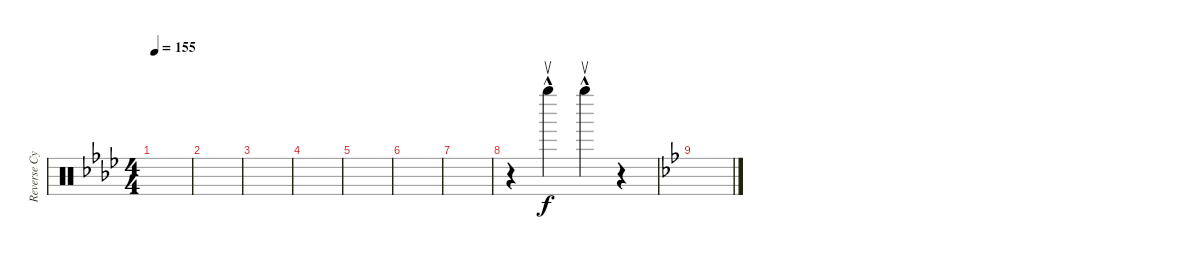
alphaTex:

\track ("Reverse Cymbal" "Reverse Cy") {instrument percussion}
\staff {score}
\articulation defaults
\ts (4 4)
\section ("" "")
\tempo 155
\clef neutral
\ks ab
|
|
|
|
|
|
|
r.4 "Right Maraca (return)"{hac}.4 "Right Maraca (return)"{hac}.4 r.4 |
\ks bb
